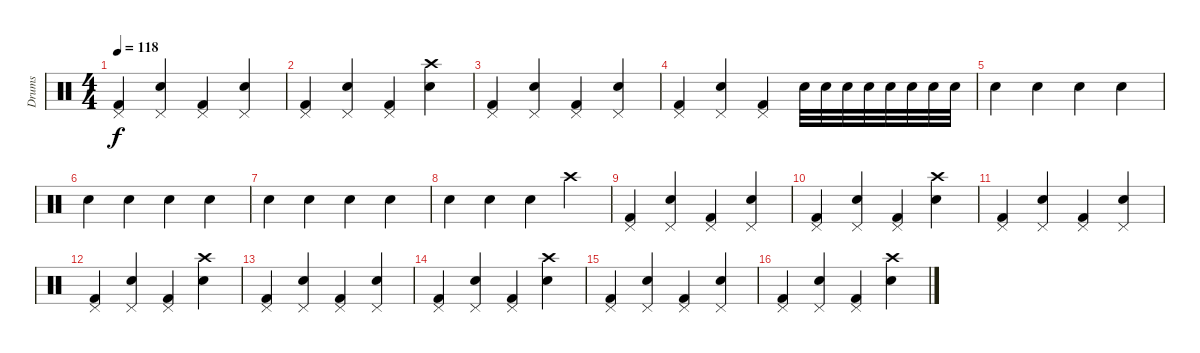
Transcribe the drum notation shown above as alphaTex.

\track ("Drums" "Drums") {instrument percussion}
\staff {score}
\articulation defaults
\ts (4 4)
\tempo 118
\clef neutral
\ks c
("Pedal Hi-Hat (hit)" "Kick (hit) 2").4{dy f} ("Pedal Hi-Hat (hit)" "Snare (hit) 2").4 ("Pedal Hi-Hat (hit)" "Kick (hit) 2").4 ("Pedal Hi-Hat (hit)" "Snare (hit) 2").4 |
("Pedal Hi-Hat (hit)" "Kick (hit) 2").4 ("Pedal Hi-Hat (hit)" "Snare (hit) 2").4 ("Pedal Hi-Hat (hit)" "Kick (hit) 2").4 ("Crash high (hit)" "Snare (hit) 2").4 |
("Pedal Hi-Hat (hit)" "Kick (hit) 2").4 ("Pedal Hi-Hat (hit)" "Snare (hit) 2").4 ("Pedal Hi-Hat (hit)" "Kick (hit) 2").4 ("Pedal Hi-Hat (hit)" "Snare (hit) 2").4 |
("Pedal Hi-Hat (hit)" "Kick (hit) 2").4 ("Pedal Hi-Hat (hit)" "Snare (hit) 2").4 ("Pedal Hi-Hat (hit)" "Kick (hit) 2").4 "Snare (hit) 2".32 "Snare (hit) 2".32 "Snare (hit) 2".32 "Snare (hit) 2".32 "Snare (hit) 2".32 "Snare (hit) 2".32 "Snare (hit) 2".32 "Snare (hit) 2".32 |
"Snare (hit)".4 "Snare (hit)".4 "Snare (hit)".4 "Snare (hit)".4 |
"Snare (hit)".4 "Snare (hit)".4 "Snare (hit)".4 "Snare (hit)".4 |
"Snare (hit)".4 "Snare (hit)".4 "Snare (hit)".4 "Snare (hit)".4 |
"Snare (hit)".4 "Snare (hit)".4 "Snare (hit)".4 "Crash high (hit)".4 |
("Pedal Hi-Hat (hit)" "Kick (hit) 2").4 ("Pedal Hi-Hat (hit)" "Snare (hit) 2").4 ("Pedal Hi-Hat (hit)" "Kick (hit) 2").4 ("Pedal Hi-Hat (hit)" "Snare (hit) 2").4 |
("Pedal Hi-Hat (hit)" "Kick (hit) 2").4 ("Pedal Hi-Hat (hit)" "Snare (hit) 2").4 ("Pedal Hi-Hat (hit)" "Kick (hit) 2").4 ("Crash high (hit)" "Snare (hit) 2").4 |
("Pedal Hi-Hat (hit)" "Kick (hit) 2").4 ("Pedal Hi-Hat (hit)" "Snare (hit) 2").4 ("Pedal Hi-Hat (hit)" "Kick (hit) 2").4 ("Pedal Hi-Hat (hit)" "Snare (hit) 2").4 |
("Pedal Hi-Hat (hit)" "Kick (hit) 2").4 ("Pedal Hi-Hat (hit)" "Snare (hit) 2").4 ("Pedal Hi-Hat (hit)" "Kick (hit) 2").4 ("Crash high (hit)" "Snare (hit) 2").4 |
("Pedal Hi-Hat (hit)" "Kick (hit) 2").4 ("Pedal Hi-Hat (hit)" "Snare (hit) 2").4 ("Pedal Hi-Hat (hit)" "Kick (hit) 2").4 ("Pedal Hi-Hat (hit)" "Snare (hit) 2").4 |
("Pedal Hi-Hat (hit)" "Kick (hit) 2").4 ("Pedal Hi-Hat (hit)" "Snare (hit) 2").4 ("Pedal Hi-Hat (hit)" "Kick (hit) 2").4 ("Crash high (hit)" "Snare (hit) 2").4 |
("Pedal Hi-Hat (hit)" "Kick (hit) 2").4 ("Pedal Hi-Hat (hit)" "Snare (hit) 2").4 ("Pedal Hi-Hat (hit)" "Kick (hit) 2").4 ("Pedal Hi-Hat (hit)" "Snare (hit) 2").4 |
("Pedal Hi-Hat (hit)" "Kick (hit) 2").4 ("Pedal Hi-Hat (hit)" "Snare (hit) 2").4 ("Pedal Hi-Hat (hit)" "Kick (hit) 2").4 ("Crash high (hit)" "Snare (hit) 2").4
